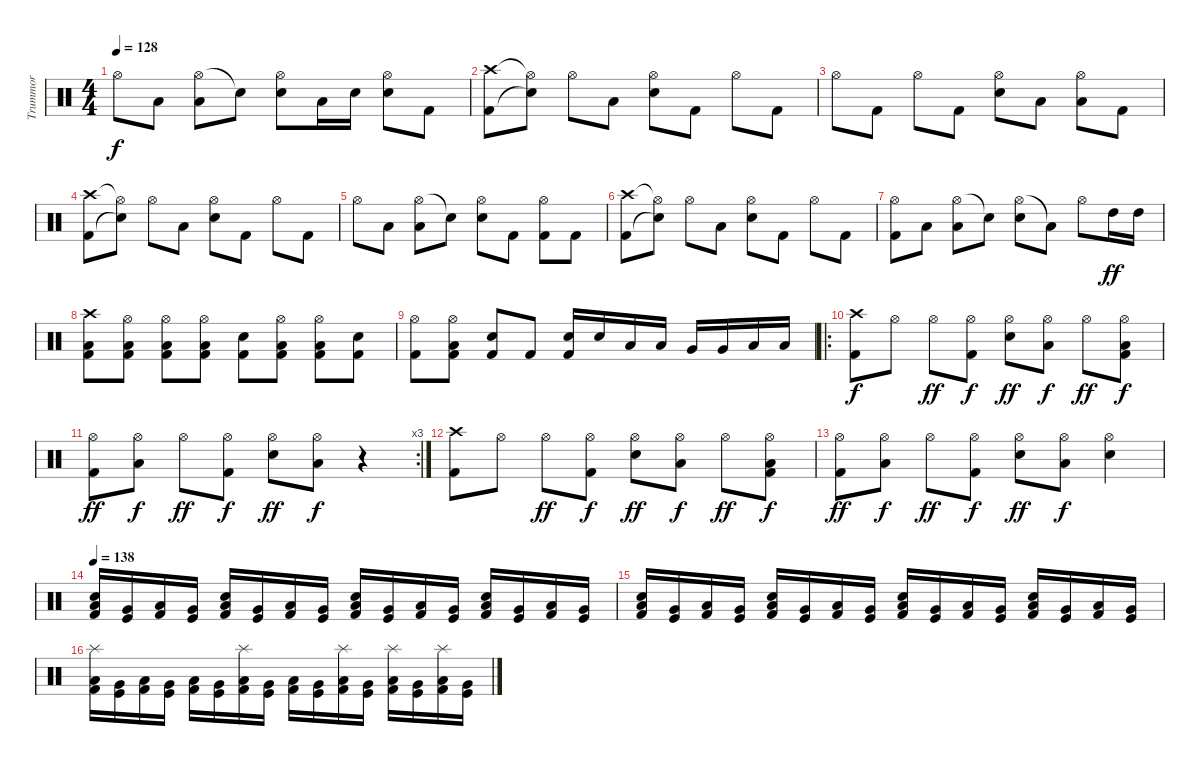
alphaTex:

\track ("Trummor" "Trummor") {instrument percussion}
\staff {score}
\articulation defaults
\ts (4 4)
\tempo 128
\clef neutral
\ks c "Hi-Hat (open)".8{dy f} "Low Floor Tom (hit)".8
("Hi-Hat (open)" "Low Floor Tom (hit)").8 "Snare (hit)"{t}.8 ("Hi-Hat (open)" "Snare (hit) 2").8 "Low Floor Tom (hit)".16 "Snare (hit) 2".16 ("Hi-Hat (open)" "Snare (hit) 2").8 "Kick (hit) 2".8 |
("Crash high (hit)" "Kick (hit) 2").8 ("Hi-Hat (open)"{t} "Snare (hit)"{t}).8 "Hi-Hat (open)".8 "Low Floor Tom (hit)".8 ("Hi-Hat (open)" "Snare (hit) 2").8 "Kick (hit) 2".8 "Hi-Hat (open)".8 "Kick (hit) 2".8 |
"Hi-Hat (open)".8 "Kick (hit) 2".8 "Hi-Hat (open)".8 "Kick (hit) 2".8 ("Hi-Hat (open)" "Snare (hit) 2").8 "Low Floor Tom (hit)".8 ("Hi-Hat (open)" "Low Floor Tom (hit)").8 "Kick (hit) 2".8 |
("Crash high (hit)" "Kick (hit) 2").8 ("Hi-Hat (open)"{t} "Snare (hit)"{t}).8 "Hi-Hat (open)".8 "Low Floor Tom (hit)".8 ("Hi-Hat (open)" "Snare (hit) 2").8 "Kick (hit) 2".8 "Hi-Hat (open)".8 "Kick (hit) 2".8 |
"Hi-Hat (open)".8 "Low Floor Tom (hit)".8 ("Hi-Hat (open)" "Low Floor Tom (hit)").8 "Snare (hit)"{t}.8 ("Hi-Hat (open)" "Snare (hit) 2").8 "Kick (hit) 2".8 ("Hi-Hat (open)" "Kick (hit) 2").8 "Kick (hit) 2".8 |
("Crash high (hit)" "Kick (hit) 2").8 ("Hi-Hat (open)"{t} "Snare (hit)"{t}).8 "Hi-Hat (open)".8 "Low Floor Tom (hit)".8 ("Hi-Hat (open)" "Snare (hit) 2").8 "Kick (hit) 2".8 "Hi-Hat (open)".8 "Kick (hit) 2".8 |
("Hi-Hat (open)" "Kick (hit) 2").8 "Low Floor Tom (hit)".8 ("Hi-Hat (open)" "Low Floor Tom (hit)").8 "Snare (hit)"{t}.8 ("Hi-Hat (open)" "Snare (hit) 2").8 "Low Floor Tom (hit)"{t}.8 "Hi-Hat (open)".8 "High Tom (hit)".16{dy ff} "High Tom (hit)".16 |
("Crash high (hit)" "Low Floor Tom (hit)" "Kick (hit) 2").8 ("Hi-Hat (open)" "Low Floor Tom (hit)" "Kick (hit) 2").8 ("Hi-Hat (open)" "Low Floor Tom (hit)" "Kick (hit) 2").8 ("Hi-Hat (open)" "Low Floor Tom (hit)" "Kick (hit) 2").8 ("Snare (hit) 2" "Kick (hit) 2").8 ("Hi-Hat (open)" "Low Floor Tom (hit)" "Kick (hit) 2").8 ("Hi-Hat (open)" "Low Floor Tom (hit)" "Kick (hit) 2").8 ("Snare (hit) 2" "Kick (hit) 2").8 |
("Hi-Hat (open)" "Kick (hit) 2").8 ("Hi-Hat (open)" "Low Floor Tom (hit)" "Kick (hit) 2").8 ("Snare (hit) 2" "Kick (hit) 2").8 "Kick (hit) 2".8 ("Snare (hit) 2" "Kick (hit) 2").16 "Snare (hit) 2".16 "Low Floor Tom (hit)".16 "Low Floor Tom (hit)".16 "Very Low Tom (hit)".16 "Very Low Tom (hit)".16 "Low Tom (hit)".16 "Low Tom (hit)".16 |
\ro
("Crash high (hit)" "Kick (hit) 2").8{dy f} "Hi-Hat (open)".8 "Hi-Hat (open)".8{dy ff} ("Hi-Hat (open)" "Kick (hit) 2").8{dy f} ("Hi-Hat (open)" "Snare (hit) 2").8{dy ff} ("Hi-Hat (open)" "Low Floor Tom (hit)").8{dy f} "Hi-Hat (open)".8{dy ff} ("Hi-Hat (open)" "Low Floor Tom (hit)" "Kick (hit) 2").8{dy f} |
\rc 3
("Hi-Hat (open)" "Kick (hit) 2").8{dy ff} ("Hi-Hat (open)" "Low Floor Tom (hit)").8{dy f} "Hi-Hat (open)".8{dy ff} ("Hi-Hat (open)" "Kick (hit) 2").8{dy f} ("Hi-Hat (open)" "Snare (hit) 2").8{dy ff} ("Hi-Hat (open)" "Low Floor Tom (hit)").8{dy f} r.4 |
("Crash high (hit)" "Kick (hit) 2").8 "Hi-Hat (open)".8 "Hi-Hat (open)".8{dy ff} ("Hi-Hat (open)" "Kick (hit) 2").8{dy f} ("Hi-Hat (open)" "Snare (hit) 2").8{dy ff} ("Hi-Hat (open)" "Low Floor Tom (hit)").8{dy f} "Hi-Hat (open)".8{dy ff} ("Hi-Hat (open)" "Low Floor Tom (hit)" "Kick (hit) 2").8{dy f} |
("Hi-Hat (open)" "Kick (hit) 2").8{dy ff} ("Hi-Hat (open)" "Low Floor Tom (hit)").8{dy f} "Hi-Hat (open)".8{dy ff} ("Hi-Hat (open)" "Kick (hit) 2").8{dy f} ("Hi-Hat (open)" "Snare (hit) 2").8{dy ff} ("Hi-Hat (open)" "Low Floor Tom (hit)").8{dy f} ("Hi-Hat (open)" "Snare (hit) 2").4 |
\tempo 138
("Snare (hit) 2" "Low Floor Tom (hit)" "Kick (hit) 2").16 ("Very Low Tom (hit)" "Kick (hit)").16 ("Low Floor Tom (hit)" "Kick (hit) 2").16 ("Very Low Tom (hit)" "Kick (hit)").16 ("Snare (hit) 2" "Low Floor Tom (hit)" "Kick (hit) 2").16 ("Very Low Tom (hit)" "Kick (hit)").16 ("Low Floor Tom (hit)" "Kick (hit) 2").16 ("Very Low Tom (hit)" "Kick (hit)").16 ("Snare (hit) 2" "Low Floor Tom (hit)" "Kick (hit) 2").16 ("Very Low Tom (hit)" "Kick (hit)").16 ("Low Floor Tom (hit)" "Kick (hit) 2").16 ("Very Low Tom (hit)" "Kick (hit)").16 ("Snare (hit) 2" "Low Floor Tom (hit)" "Kick (hit) 2").16 ("Very Low Tom (hit)" "Kick (hit)").16 ("Low Floor Tom (hit)" "Kick (hit) 2").16 ("Very Low Tom (hit)" "Kick (hit)").16 |
("Snare (hit) 2" "Low Floor Tom (hit)" "Kick (hit) 2").16 ("Very Low Tom (hit)" "Kick (hit)").16 ("Low Floor Tom (hit)" "Kick (hit) 2").16 ("Very Low Tom (hit)" "Kick (hit)").16 ("Snare (hit) 2" "Low Floor Tom (hit)" "Kick (hit) 2").16 ("Very Low Tom (hit)" "Kick (hit)").16 ("Low Floor Tom (hit)" "Kick (hit) 2").16 ("Very Low Tom (hit)" "Kick (hit)").16 ("Snare (hit) 2" "Low Floor Tom (hit)" "Kick (hit) 2").16 ("Very Low Tom (hit)" "Kick (hit)").16 ("Low Floor Tom (hit)" "Kick (hit) 2").16 ("Very Low Tom (hit)" "Kick (hit)").16 ("Snare (hit) 2" "Low Floor Tom (hit)" "Kick (hit) 2").16 ("Very Low Tom (hit)" "Kick (hit)").16 ("Low Floor Tom (hit)" "Kick (hit) 2").16 ("Very Low Tom (hit)" "Kick (hit)").16 |
("Splash (hit)" "Low Floor Tom (hit)" "Kick (hit) 2").16 ("Very Low Tom (hit)" "Kick (hit)").16 ("Low Floor Tom (hit)" "Kick (hit) 2").16 ("Very Low Tom (hit)" "Kick (hit)").16 ("Low Floor Tom (hit)" "Kick (hit) 2").16 ("Very Low Tom (hit)" "Kick (hit)").16 ("Splash (hit)" "Low Floor Tom (hit)" "Kick (hit) 2").16 ("Very Low Tom (hit)" "Kick (hit)").16 ("Low Floor Tom (hit)" "Kick (hit) 2").16 ("Very Low Tom (hit)" "Kick (hit)").16 ("Splash (hit)" "Low Floor Tom (hit)" "Kick (hit) 2").16 ("Very Low Tom (hit)" "Kick (hit)").16 ("Splash (hit)" "Low Floor Tom (hit)" "Kick (hit) 2").16 ("Very Low Tom (hit)" "Kick (hit)").16 ("Splash (hit)" "Low Floor Tom (hit)" "Kick (hit) 2").16 ("Very Low Tom (hit)" "Kick (hit)").16
